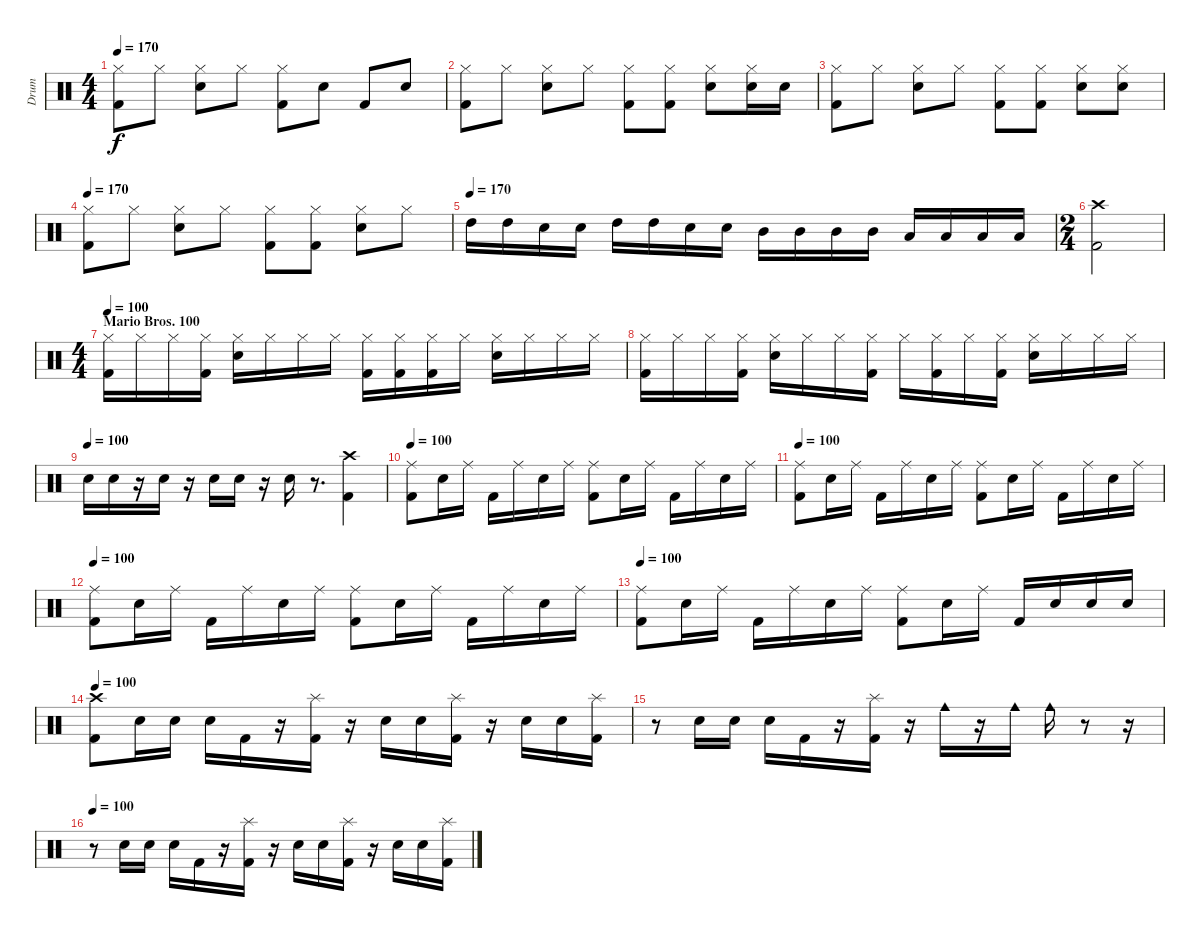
\track ("Drum" "Drum") {instrument percussion}
\staff {score}
\articulation defaults
\ts (4 4)
\tempo 170
\clef neutral
\ks c
("Hi-Hat (closed)" "Kick (hit) 2").8{dy f} "Hi-Hat (closed)".8 ("Hi-Hat (closed)" "Electric Snare (hit)").8 "Hi-Hat (closed)".8 ("Hi-Hat (closed)" "Kick (hit) 2").8 "Electric Snare (hit)".8 "Kick (hit) 2".8 "Electric Snare (hit)".8 |
("Hi-Hat (closed)" "Kick (hit) 2").8 "Hi-Hat (closed)".8 ("Hi-Hat (closed)" "Electric Snare (hit)").8 "Hi-Hat (closed)".8 ("Hi-Hat (closed)" "Kick (hit) 2").8 ("Hi-Hat (closed)" "Kick (hit) 2").8 ("Hi-Hat (closed)" "Electric Snare (hit)").8 ("Hi-Hat (closed)" "Electric Snare (hit)").16 "Electric Snare (hit)".16 |
("Hi-Hat (closed)" "Kick (hit) 2").8 "Hi-Hat (closed)".8 ("Hi-Hat (closed)" "Electric Snare (hit)").8 "Hi-Hat (closed)".8 ("Hi-Hat (closed)" "Kick (hit) 2").8 ("Hi-Hat (closed)" "Kick (hit) 2").8 ("Hi-Hat (closed)" "Electric Snare (hit)").8 ("Hi-Hat (closed)" "Electric Snare (hit)").8 |
\tempo 170
("Hi-Hat (closed)" "Kick (hit) 2").8 "Hi-Hat (closed)".8 ("Hi-Hat (closed)" "Electric Snare (hit)").8 "Hi-Hat (closed)".8 ("Hi-Hat (closed)" "Kick (hit) 2").8 ("Hi-Hat (closed)" "Kick (hit) 2").8 ("Hi-Hat (closed)" "Electric Snare (hit)").8 "Hi-Hat (closed)".8 |
\tempo (170)
"High Tom (hit)".16 "High Tom (hit)".16 "Electric Snare (hit)".16 "Electric Snare (hit)".16 "High Tom (hit)".16 "High Tom (hit)".16 "Electric Snare (hit)".16 "Electric Snare (hit)".16 "Mid Tom (hit)".16 "Mid Tom (hit)".16 "Mid Tom (hit)".16 "Mid Tom (hit)".16 "Low Tom (hit)".16 "Low Tom (hit)".16 "Low Tom (hit)".16 "Low Tom (hit)".16 |
\ts (2 4)
("Crash high (hit)" "Kick (hit) 2").2 |
\ts (4 4)
\section ("" "Mario Bros. 100")
\tempo 100
("Hi-Hat (closed)" "Kick (hit) 2").16 "Hi-Hat (closed)".16 "Hi-Hat (closed)".16 ("Hi-Hat (closed)" "Kick (hit) 2").16 ("Hi-Hat (closed)" "Electric Snare (hit)").16 "Hi-Hat (closed)".16 "Hi-Hat (closed)".16 "Hi-Hat (closed)".16 ("Hi-Hat (closed)" "Kick (hit) 2").16 ("Hi-Hat (closed)" "Kick (hit) 2").16 ("Hi-Hat (closed)" "Kick (hit) 2").16 "Hi-Hat (closed)".16 ("Hi-Hat (closed)" "Electric Snare (hit)").16 "Hi-Hat (closed)".16 "Hi-Hat (closed)".16 "Hi-Hat (closed)".16 |
("Hi-Hat (closed)" "Kick (hit) 2").16 "Hi-Hat (closed)".16 "Hi-Hat (closed)".16 ("Hi-Hat (closed)" "Kick (hit) 2").16 ("Hi-Hat (closed)" "Electric Snare (hit)").16 "Hi-Hat (closed)".16 "Hi-Hat (closed)".16 ("Hi-Hat (closed)" "Kick (hit) 2").16 "Hi-Hat (closed)".16 ("Hi-Hat (closed)" "Kick (hit) 2").16 "Hi-Hat (closed)".16 ("Hi-Hat (closed)" "Kick (hit) 2").16 ("Hi-Hat (closed)" "Electric Snare (hit)").16 "Hi-Hat (closed)".16 "Hi-Hat (closed)".16 "Hi-Hat (closed)".16 |
\tempo (100)
"Electric Snare (hit)".16 "Electric Snare (hit)".16 r.16 "Electric Snare (hit)".16 r.16 "Electric Snare (hit)".16 "Electric Snare (hit)".16 r.16 "Electric Snare (hit)".16 r.8{d} ("Crash high (hit)" "Kick (hit) 2").4 |
\tempo 100
("Ride (middle)" "Kick (hit) 2").8 "Electric Snare (hit)".16 "Ride (middle)".16 "Kick (hit) 2".16 "Ride (middle)".16 "Electric Snare (hit)".16 "Ride (middle)".16 ("Ride (middle)" "Kick (hit) 2").8 "Electric Snare (hit)".16 "Ride (middle)".16 "Kick (hit) 2".16 "Ride (middle)".16 "Electric Snare (hit)".16 "Ride (middle)".16 |
\tempo 100
("Ride (middle)" "Kick (hit) 2").8 "Electric Snare (hit)".16 "Ride (middle)".16 "Kick (hit) 2".16 "Ride (middle)".16 "Electric Snare (hit)".16 "Ride (middle)".16 ("Ride (middle)" "Kick (hit) 2").8 "Electric Snare (hit)".16 "Ride (middle)".16 "Kick (hit) 2".16 "Ride (middle)".16 "Electric Snare (hit)".16 "Ride (middle)".16 |
\tempo 100
("Ride (middle)" "Kick (hit) 2").8 "Electric Snare (hit)".16 "Ride (middle)".16 "Kick (hit) 2".16 "Ride (middle)".16 "Electric Snare (hit)".16 "Ride (middle)".16 ("Ride (middle)" "Kick (hit) 2").8 "Electric Snare (hit)".16 "Ride (middle)".16 "Kick (hit) 2".16 "Ride (middle)".16 "Electric Snare (hit)".16 "Ride (middle)".16 |
\tempo 100
("Ride (middle)" "Kick (hit) 2").8 "Electric Snare (hit)".16 "Ride (middle)".16 "Kick (hit) 2".16 "Ride (middle)".16 "Electric Snare (hit)".16 "Ride (middle)".16 ("Ride (middle)" "Kick (hit) 2").8 "Electric Snare (hit)".16 "Ride (middle)".16 "Kick (hit) 2".16 "Electric Snare (hit)".16 "Electric Snare (hit)".16 "Electric Snare (hit)".16 |
\tempo 100
("Crash high (hit)" "Kick (hit) 2").8 "Electric Snare (hit)".16 "Electric Snare (hit)".16 "Electric Snare (hit)".16 "Kick (hit) 2".16 r.16 ("Splash (hit)" "Kick (hit) 2").16 r.16 "Electric Snare (hit)".16 "Electric Snare (hit)".16 ("Splash (hit)" "Kick (hit) 2").16 r.16 "Electric Snare (hit)".16 "Electric Snare (hit)".16 ("Splash (hit)" "Kick (hit) 2").16 |
r.8 "Electric Snare (hit)".16 "Electric Snare (hit)".16 "Electric Snare (hit)".16 "Kick (hit) 2".16 r.16 ("Splash (hit)" "Kick (hit) 2").16 r.16 "Cowbell medium (hit)".16 r.16 "Cowbell medium (hit)".16 "Cowbell medium (hit)".16 r.8 r.16 |
\tempo 100
r.8 "Electric Snare (hit)".16 "Electric Snare (hit)".16 "Electric Snare (hit)".16 "Kick (hit) 2".16 r.16 ("Splash (hit)" "Kick (hit) 2").16 r.16 "Electric Snare (hit)".16 "Electric Snare (hit)".16 ("Splash (hit)" "Kick (hit) 2").16 r.16 "Electric Snare (hit)".16 "Electric Snare (hit)".16 ("Splash (hit)" "Kick (hit) 2").16
